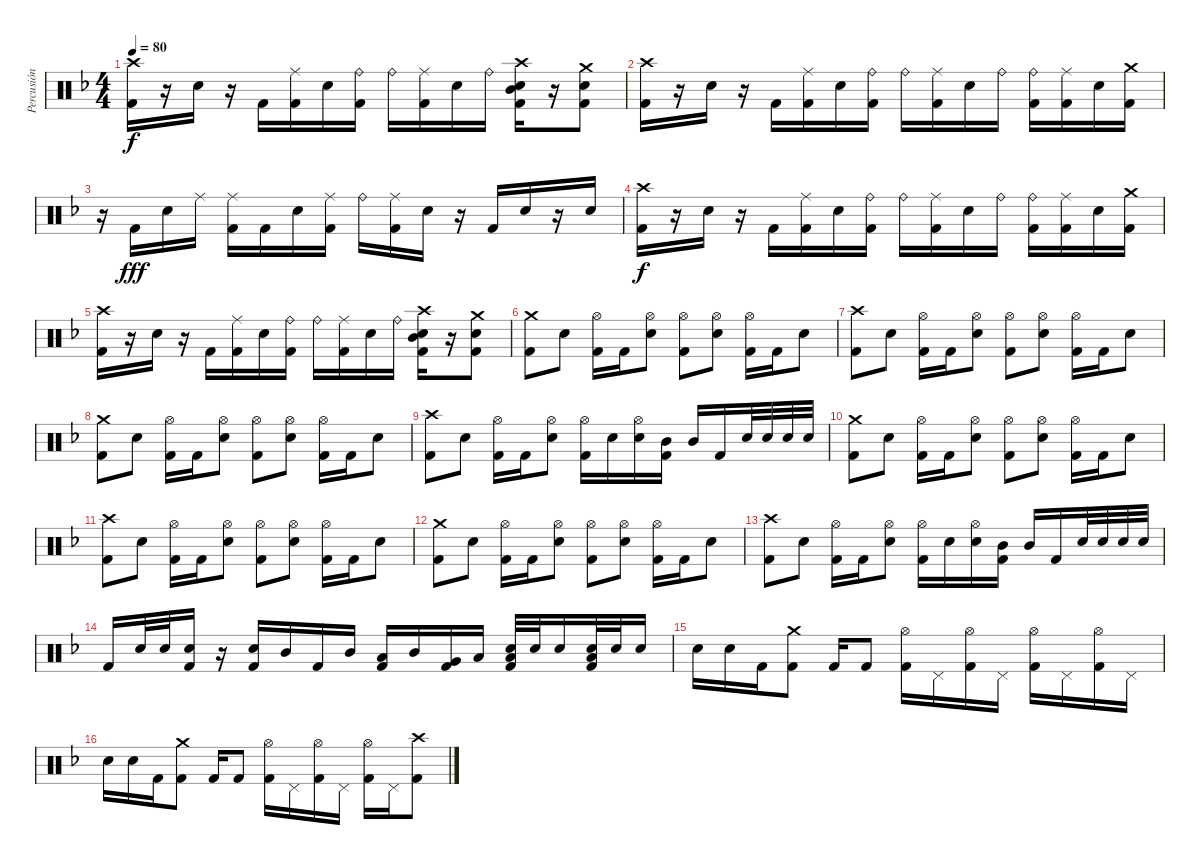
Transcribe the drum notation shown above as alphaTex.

\track ("Percusión" "Percusión") {instrument percussion}
\staff {score}
\articulation defaults
\ts (4 4)
\tempo 80
\clef neutral
\ks f
("Crash high (hit)" "Kick (hit) 2").16{dy f} r.16 "Electric Snare (hit)".16 r.16 "Kick (hit) 2".16 ("Ride (middle)" "Kick (hit) 2").16 "Electric Snare (hit)".16 ("Ride (bell)" "Kick (hit) 2").16 "Ride (bell)".16 ("Ride (middle)" "Kick (hit) 2").16 "Electric Snare (hit)".16 "Ride (bell)".16 ("Crash high (hit)" "Electric Snare (hit)" "Mid Tom (hit)" "Kick (hit) 2").16 r.16 ("Crash medium (hit)" "Electric Snare (hit)" "Kick (hit) 2").8 |
("Crash high (hit)" "Kick (hit) 2").16 r.16 "Electric Snare (hit)".16 r.16 "Kick (hit) 2".16 ("Ride (middle)" "Kick (hit) 2").16 "Electric Snare (hit)".16 ("Ride (bell)" "Kick (hit) 2").16 "Ride (bell)".16 ("Ride (middle)" "Kick (hit) 2").16 "Electric Snare (hit)".16 "Ride (bell)".16 ("Ride (bell)" "Kick (hit) 2").16 ("Ride (middle)" "Kick (hit) 2").16 "Electric Snare (hit)".16 ("Crash medium (hit)" "Kick (hit) 2").16 |
r.16 "Kick (hit) 2".16{dy fff} "Electric Snare (hit)".16 "Ride (middle)".16 ("Ride (middle)" "Kick (hit) 2").16 "Kick (hit) 2".16 "Electric Snare (hit)".16 ("Ride (middle)" "Kick (hit) 2").16 "Ride (bell)".16 ("Ride (middle)" "Kick (hit) 2").16 "Electric Snare (hit)".16 r.16 "Kick (hit) 2".16 "Electric Snare (hit)".16 r.16 "Electric Snare (hit)".16 |
("Crash high (hit)" "Kick (hit) 2").16{dy f} r.16 "Electric Snare (hit)".16 r.16 "Kick (hit) 2".16 ("Ride (middle)" "Kick (hit) 2").16 "Electric Snare (hit)".16 ("Ride (bell)" "Kick (hit) 2").16 "Ride (bell)".16 ("Ride (middle)" "Kick (hit) 2").16 "Electric Snare (hit)".16 "Ride (bell)".16 ("Ride (bell)" "Kick (hit) 2").16 ("Ride (middle)" "Kick (hit) 2").16 "Electric Snare (hit)".16 ("Crash medium (hit)" "Kick (hit) 2").16 |
("Crash high (hit)" "Kick (hit) 2").16 r.16 "Electric Snare (hit)".16 r.16 "Kick (hit) 2".16 ("Ride (middle)" "Kick (hit) 2").16 "Electric Snare (hit)".16 ("Ride (bell)" "Kick (hit) 2").16 "Ride (bell)".16 ("Ride (middle)" "Kick (hit) 2").16 "Electric Snare (hit)".16 "Ride (bell)".16 ("Crash high (hit)" "Electric Snare (hit)" "Mid Tom (hit)" "Kick (hit) 2").16 r.16 ("Crash medium (hit)" "Electric Snare (hit)" "Kick (hit) 2").8 |
("Crash medium (hit)" "Kick (hit) 2").8 "Electric Snare (hit)".8 ("Hi-Hat (open)" "Kick (hit) 2").16 "Kick (hit) 2".16 ("Hi-Hat (open)" "Electric Snare (hit)").8 ("Hi-Hat (open)" "Kick (hit) 2").8 ("Hi-Hat (open)" "Electric Snare (hit)").8 ("Hi-Hat (open)" "Kick (hit) 2").16 "Kick (hit) 2".16 "Electric Snare (hit)".8 |
("Crash high (hit)" "Kick (hit) 2").8 "Electric Snare (hit)".8 ("Hi-Hat (open)" "Kick (hit) 2").16 "Kick (hit) 2".16 ("Hi-Hat (open)" "Electric Snare (hit)").8 ("Hi-Hat (open)" "Kick (hit) 2").8 ("Hi-Hat (open)" "Electric Snare (hit)").8 ("Hi-Hat (open)" "Kick (hit) 2").16 "Kick (hit) 2".16 "Electric Snare (hit)".8 |
("Crash medium (hit)" "Kick (hit) 2").8 "Electric Snare (hit)".8 ("Hi-Hat (open)" "Kick (hit) 2").16 "Kick (hit) 2".16 ("Hi-Hat (open)" "Electric Snare (hit)").8 ("Hi-Hat (open)" "Kick (hit) 2").8 ("Hi-Hat (open)" "Electric Snare (hit)").8 ("Hi-Hat (open)" "Kick (hit) 2").16 "Kick (hit) 2".16 "Electric Snare (hit)".8 |
("Crash high (hit)" "Kick (hit) 2").8 "Electric Snare (hit)".8 ("Hi-Hat (open)" "Kick (hit) 2").16 "Kick (hit) 2".16 ("Hi-Hat (open)" "Electric Snare (hit)").8 ("Hi-Hat (open)" "Kick (hit) 2").16 "Electric Snare (hit)".16 ("Hi-Hat (open)" "Electric Snare (hit)").16 ("Mid Tom (hit)" "Kick (hit) 2").16 "Mid Tom (hit)".16 "Kick (hit) 2".16 "Electric Snare (hit)".32 "Electric Snare (hit)".32 "Electric Snare (hit)".32 "Electric Snare (hit)".32 |
("Crash medium (hit)" "Kick (hit) 2").8 "Electric Snare (hit)".8 ("Hi-Hat (open)" "Kick (hit) 2").16 "Kick (hit) 2".16 ("Hi-Hat (open)" "Electric Snare (hit)").8 ("Hi-Hat (open)" "Kick (hit) 2").8 ("Hi-Hat (open)" "Electric Snare (hit)").8 ("Hi-Hat (open)" "Kick (hit) 2").16 "Kick (hit) 2".16 "Electric Snare (hit)".8 |
("Crash high (hit)" "Kick (hit) 2").8 "Electric Snare (hit)".8 ("Hi-Hat (open)" "Kick (hit) 2").16 "Kick (hit) 2".16 ("Hi-Hat (open)" "Electric Snare (hit)").8 ("Hi-Hat (open)" "Kick (hit) 2").8 ("Hi-Hat (open)" "Electric Snare (hit)").8 ("Hi-Hat (open)" "Kick (hit) 2").16 "Kick (hit) 2".16 "Electric Snare (hit)".8 |
("Crash medium (hit)" "Kick (hit) 2").8 "Electric Snare (hit)".8 ("Hi-Hat (open)" "Kick (hit) 2").16 "Kick (hit) 2".16 ("Hi-Hat (open)" "Electric Snare (hit)").8 ("Hi-Hat (open)" "Kick (hit) 2").8 ("Hi-Hat (open)" "Electric Snare (hit)").8 ("Hi-Hat (open)" "Kick (hit) 2").16 "Kick (hit) 2".16 "Electric Snare (hit)".8 |
("Crash high (hit)" "Kick (hit) 2").8 "Electric Snare (hit)".8 ("Hi-Hat (open)" "Kick (hit) 2").16 "Kick (hit) 2".16 ("Hi-Hat (open)" "Electric Snare (hit)").8 ("Hi-Hat (open)" "Kick (hit) 2").16 "Electric Snare (hit)".16 ("Hi-Hat (open)" "Electric Snare (hit)").16 ("Mid Tom (hit)" "Kick (hit) 2").16 "Mid Tom (hit)".16 "Kick (hit) 2".16 "Electric Snare (hit)".32 "Electric Snare (hit)".32 "Electric Snare (hit)".32 "Electric Snare (hit)".32 |
"Kick (hit) 2".16 "Electric Snare (hit)".32 "Electric Snare (hit)".32 ("Electric Snare (hit)" "Kick (hit) 2").16 r.16 ("Electric Snare (hit)" "Kick (hit) 2").16 "Mid Tom (hit)".16 "Kick (hit) 2".16 "Mid Tom (hit)".16 ("Low Tom (hit)" "Kick (hit) 2").16 "Mid Tom (hit)".16 ("Very Low Tom (hit)" "Kick (hit) 2").16 "Low Floor Tom (hit)".16 ("Electric Snare (hit)" "Low Floor Tom (hit)" "Kick (hit) 2").32 "Electric Snare (hit)".32 "Electric Snare (hit)".16 ("Electric Snare (hit)" "Low Floor Tom (hit)" "Kick (hit) 2").32 "Electric Snare (hit)".32 "Electric Snare (hit)".16 |
"Electric Snare (hit)".16 "Electric Snare (hit)".16 "Kick (hit) 2".16 ("Crash medium (hit)" "Kick (hit) 2").8 "Kick (hit) 2".16 "Kick (hit) 2".8 ("Hi-Hat (open)" "Kick (hit) 2").16 "Pedal Hi-Hat (hit)".16 ("Hi-Hat (open)" "Kick (hit) 2").16 "Pedal Hi-Hat (hit)".16 ("Hi-Hat (open)" "Kick (hit) 2").16 "Pedal Hi-Hat (hit)".16 ("Hi-Hat (open)" "Kick (hit) 2").16 "Pedal Hi-Hat (hit)".16 |
"Electric Snare (hit)".16 "Electric Snare (hit)".16 "Kick (hit) 2".16 ("Crash medium (hit)" "Kick (hit) 2").8 "Kick (hit) 2".16 "Kick (hit) 2".8 ("Hi-Hat (open)" "Kick (hit) 2").16 "Pedal Hi-Hat (hit)".16 ("Hi-Hat (open)" "Kick (hit) 2").16 "Pedal Hi-Hat (hit)".16 ("Hi-Hat (open)" "Kick (hit) 2").16 "Pedal Hi-Hat (hit)".16 ("Crash high (hit)" "Kick (hit) 2").8
